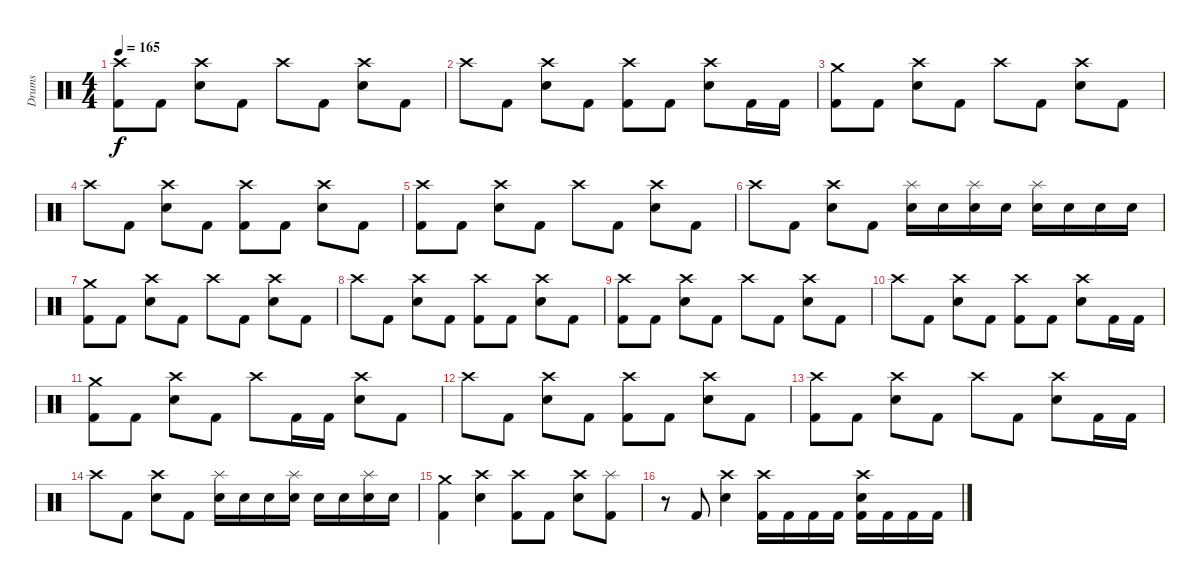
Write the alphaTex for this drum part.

\track ("Drums" "Drums") {instrument percussion}
\staff {score}
\articulation defaults
\ts (4 4)
\tempo 165
\clef neutral
\ks c
("Crash high (hit)" "Kick (hit) 2").8{dy f} "Kick (hit) 2".8 ("Crash high (hit)" "Electric Snare (hit)").8 "Kick (hit) 2".8 "Crash high (hit)".8 "Kick (hit) 2".8 ("Crash high (hit)" "Electric Snare (hit)").8 "Kick (hit) 2".8 |
"Crash high (hit)".8 "Kick (hit) 2".8 ("Crash high (hit)" "Electric Snare (hit)").8 "Kick (hit) 2".8 ("Crash high (hit)" "Kick (hit) 2").8 "Kick (hit) 2".8 ("Crash high (hit)" "Electric Snare (hit)").8 "Kick (hit) 2".16 "Kick (hit) 2".16 |
("Crash medium (hit)" "Kick (hit) 2").8 "Kick (hit) 2".8 ("Crash high (hit)" "Electric Snare (hit)").8 "Kick (hit) 2".8 "Crash high (hit)".8 "Kick (hit) 2".8 ("Crash high (hit)" "Electric Snare (hit)").8 "Kick (hit) 2".8 |
"Crash high (hit)".8 "Kick (hit) 2".8 ("Crash high (hit)" "Electric Snare (hit)").8 "Kick (hit) 2".8 ("Crash high (hit)" "Kick (hit) 2").8 "Kick (hit) 2".8 ("Crash high (hit)" "Electric Snare (hit)").8 "Kick (hit) 2".8 |
("Crash high (hit)" "Kick (hit) 2").8 "Kick (hit) 2".8 ("Crash high (hit)" "Electric Snare (hit)").8 "Kick (hit) 2".8 "Crash high (hit)".8 "Kick (hit) 2".8 ("Crash high (hit)" "Electric Snare (hit)").8 "Kick (hit) 2".8 |
"Crash high (hit)".8 "Kick (hit) 2".8 ("Crash high (hit)" "Electric Snare (hit)").8 "Kick (hit) 2".8 ("Splash (hit)" "Electric Snare (hit)").16 "Electric Snare (hit)".16 ("Splash (hit)" "Electric Snare (hit)").16 "Electric Snare (hit)".16 ("Splash (hit)" "Electric Snare (hit)").16 "Electric Snare (hit)".16 "Electric Snare (hit)".16 "Electric Snare (hit)".16 |
("Crash medium (hit)" "Kick (hit) 2").8 "Kick (hit) 2".8 ("Crash high (hit)" "Electric Snare (hit)").8 "Kick (hit) 2".8 "Crash high (hit)".8 "Kick (hit) 2".8 ("Crash high (hit)" "Electric Snare (hit)").8 "Kick (hit) 2".8 |
"Crash high (hit)".8 "Kick (hit) 2".8 ("Crash high (hit)" "Electric Snare (hit)").8 "Kick (hit) 2".8 ("Crash high (hit)" "Kick (hit) 2").8 "Kick (hit) 2".8 ("Crash high (hit)" "Electric Snare (hit)").8 "Kick (hit) 2".8 |
("Crash high (hit)" "Kick (hit) 2").8 "Kick (hit) 2".8 ("Crash high (hit)" "Electric Snare (hit)").8 "Kick (hit) 2".8 "Crash high (hit)".8 "Kick (hit) 2".8 ("Crash high (hit)" "Electric Snare (hit)").8 "Kick (hit) 2".8 |
"Crash high (hit)".8 "Kick (hit) 2".8 ("Crash high (hit)" "Electric Snare (hit)").8 "Kick (hit) 2".8 ("Crash high (hit)" "Kick (hit) 2").8 "Kick (hit) 2".8 ("Crash high (hit)" "Electric Snare (hit)").8 "Kick (hit) 2".16 "Kick (hit) 2".16 |
("Crash medium (hit)" "Kick (hit) 2").8 "Kick (hit) 2".8 ("Crash high (hit)" "Electric Snare (hit)").8 "Kick (hit) 2".8 "Crash high (hit)".8 "Kick (hit) 2".16 "Kick (hit) 2".16 ("Crash high (hit)" "Electric Snare (hit)").8 "Kick (hit) 2".8 |
"Crash high (hit)".8 "Kick (hit) 2".8 ("Crash high (hit)" "Electric Snare (hit)").8 "Kick (hit) 2".8 ("Crash high (hit)" "Kick (hit) 2").8 "Kick (hit) 2".8 ("Crash high (hit)" "Electric Snare (hit)").8 "Kick (hit) 2".8 |
("Crash high (hit)" "Kick (hit) 2").8 "Kick (hit) 2".8 ("Crash high (hit)" "Electric Snare (hit)").8 "Kick (hit) 2".8 "Crash high (hit)".8 "Kick (hit) 2".8 ("Crash high (hit)" "Electric Snare (hit)").8 "Kick (hit) 2".16 "Kick (hit) 2".16 |
"Crash high (hit)".8 "Kick (hit) 2".8 ("Crash high (hit)" "Electric Snare (hit)").8 "Kick (hit) 2".8 ("Splash (hit)" "Electric Snare (hit)").16 "Electric Snare (hit)".16 "Electric Snare (hit)".16 ("Splash (hit)" "Electric Snare (hit)").16 "Electric Snare (hit)".16 "Electric Snare (hit)".16 ("Splash (hit)" "Electric Snare (hit)").16 "Electric Snare (hit)".16 |
("Crash medium (hit)" "Kick (hit) 2").4 ("Crash high (hit)" "Electric Snare (hit)").4 ("Crash high (hit)" "Kick (hit) 2").8 "Kick (hit) 2".8 ("Crash high (hit)" "Electric Snare (hit)").8 ("Splash (hit)" "Kick (hit) 2").8 |
r.8 "Kick (hit) 2".8 ("Crash high (hit)" "Electric Snare (hit)").4 ("Crash high (hit)" "Kick (hit) 2").16 "Kick (hit) 2".16 "Kick (hit) 2".16 "Kick (hit) 2".16 ("Crash high (hit)" "Electric Snare (hit)" "Kick (hit) 2").16 "Kick (hit) 2".16 "Kick (hit) 2".16 "Kick (hit) 2".16
